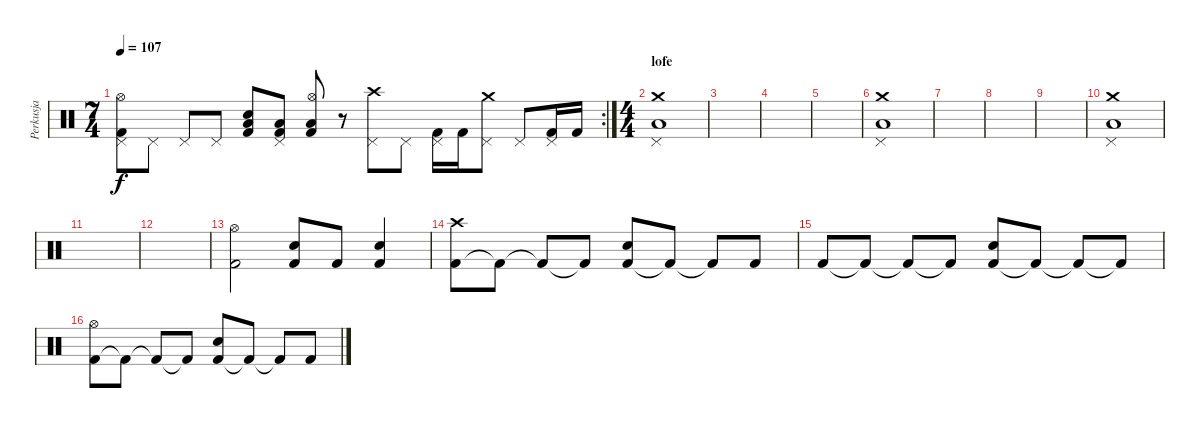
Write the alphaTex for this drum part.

\track ("Perkusja" "Perkusja") {instrument percussion}
\staff {score}
\articulation defaults
\rc 2
\ts (7 4)
\tempo 107
\clef neutral
\ks c
("Pedal Hi-Hat (hit)" "Kick (hit) 2" "Hi-Hat (open)").8{dy f} "Pedal Hi-Hat (hit)".8 "Pedal Hi-Hat (hit)".8 "Pedal Hi-Hat (hit)".8 ("Kick (hit) 2" "Low Tom (hit)" "Snare (hit) 2").8 ("Pedal Hi-Hat (hit)" "Kick (hit) 2" "Low Tom (hit)").8 ("Kick (hit) 2" "Low Tom (hit)" "Hi-Hat (open)").8 r.8 ("Pedal Hi-Hat (hit)" "Crash high (hit)").8 "Pedal Hi-Hat (hit)".8 ("Pedal Hi-Hat (hit)" "Kick (hit) 2").16 "Kick (hit) 2".16 ("Pedal Hi-Hat (hit)" "Crash medium (hit)").8 "Pedal Hi-Hat (hit)".8 ("Pedal Hi-Hat (hit)" "Kick (hit) 2").16 "Kick (hit) 2".16 |
\ts (4 4)
\section ("" "lofe")
("Pedal Hi-Hat (hit)" "Low Tom (hit)" "Crash medium (hit)").1 |
|
|
|
("Pedal Hi-Hat (hit)" "Low Tom (hit)" "Crash medium (hit)").1 |
|
|
|
("Pedal Hi-Hat (hit)" "Low Tom (hit)" "Crash medium (hit)").1 |
|
|
("Kick (hit) 2" "Hi-Hat (open)").2 ("Kick (hit) 2" "Snare (hit) 2").8 "Kick (hit) 2".8 ("Kick (hit) 2" "Snare (hit) 2").4 |
("Kick (hit) 2" "Crash high (hit)").8 "Kick (hit) 2"{t}.8 "Kick (hit) 2"{t}.8 "Kick (hit) 2"{t}.8 ("Kick (hit) 2" "Snare (hit) 2").8 "Kick (hit) 2"{t}.8 "Kick (hit) 2"{t}.8 "Kick (hit) 2".8 |
"Kick (hit) 2".8 "Kick (hit) 2"{t}.8 "Kick (hit) 2"{t}.8 "Kick (hit) 2"{t}.8 ("Kick (hit) 2" "Snare (hit) 2").8 "Kick (hit) 2"{t}.8 "Kick (hit) 2"{t}.8 "Kick (hit) 2"{t}.8 |
("Kick (hit) 2" "Hi-Hat (open)").8 "Kick (hit) 2"{t}.8 "Kick (hit) 2"{t}.8 "Kick (hit) 2"{t}.8 ("Kick (hit) 2" "Snare (hit) 2").8 "Kick (hit) 2"{t}.8 "Kick (hit) 2"{t}.8 "Kick (hit) 2".8
